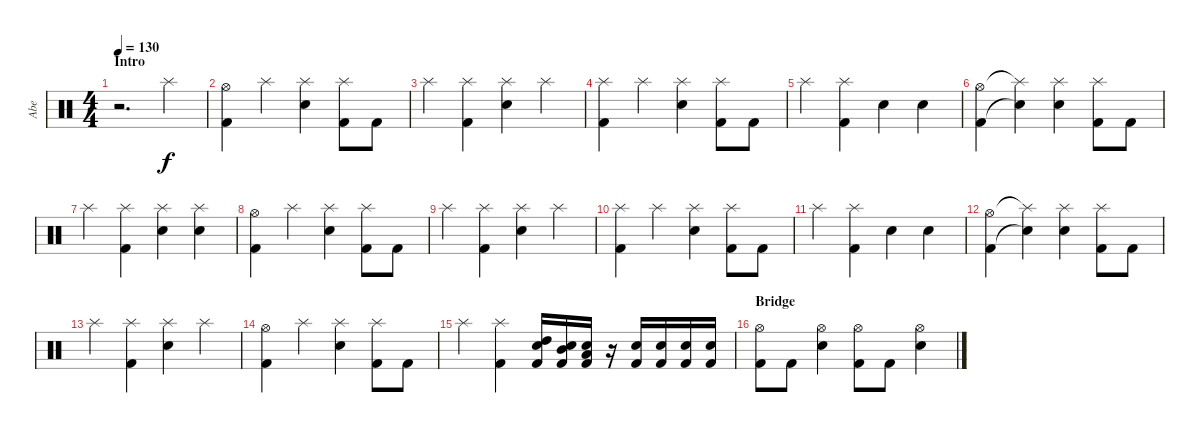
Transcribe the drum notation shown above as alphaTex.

\track ("Abe" "Abe") {instrument percussion}
\staff {score}
\articulation defaults
\ts (4 4)
\section ("" "Intro")
\tempo 130
\clef neutral
\ks c
r.2{d dy f} "Splash (hit)".4 |
("Hi-Hat (open)" "Kick (hit) 2").4 "Splash (hit)".4 ("Splash (hit)" "Snare (hit) 2").4 ("Splash (hit)" "Kick (hit) 2").8 "Kick (hit) 2".8 |
"Splash (hit)".4 ("Splash (hit)" "Kick (hit) 2").4 ("Splash (hit)" "Snare (hit) 2").4 "Splash (hit)".4 |
("Splash (hit)" "Kick (hit) 2").4 "Splash (hit)".4 ("Splash (hit)" "Snare (hit) 2").4 ("Splash (hit)" "Kick (hit) 2").8 "Kick (hit) 2".8 |
"Splash (hit)".4 ("Splash (hit)" "Kick (hit) 2").4 "Snare (hit) 2".4 "Snare (hit) 2".4 |
("Hi-Hat (open)" "Kick (hit) 2").4 ("Splash (hit)"{t} "Snare (hit)"{t}).4 ("Splash (hit)" "Snare (hit) 2").4 ("Splash (hit)" "Kick (hit) 2").8 "Kick (hit) 2".8 |
"Splash (hit)".4 ("Splash (hit)" "Kick (hit) 2").4 ("Splash (hit)" "Snare (hit) 2").4 ("Splash (hit)" "Snare (hit) 2").4 |
("Hi-Hat (open)" "Kick (hit) 2").4 "Splash (hit)".4 ("Splash (hit)" "Snare (hit) 2").4 ("Splash (hit)" "Kick (hit) 2").8 "Kick (hit) 2".8 |
"Splash (hit)".4 ("Splash (hit)" "Kick (hit) 2").4 ("Splash (hit)" "Snare (hit) 2").4 "Splash (hit)".4 |
("Splash (hit)" "Kick (hit) 2").4 "Splash (hit)".4 ("Splash (hit)" "Snare (hit) 2").4 ("Splash (hit)" "Kick (hit) 2").8 "Kick (hit) 2".8 |
"Splash (hit)".4 ("Splash (hit)" "Kick (hit) 2").4 "Snare (hit) 2".4 "Snare (hit) 2".4 |
("Hi-Hat (open)" "Kick (hit) 2").4 ("Splash (hit)"{t} "Snare (hit)"{t}).4 ("Splash (hit)" "Snare (hit) 2").4 ("Splash (hit)" "Kick (hit) 2").8 "Kick (hit) 2".8 |
"Splash (hit)".4 ("Splash (hit)" "Kick (hit) 2").4 ("Splash (hit)" "Snare (hit) 2").4 "Splash (hit)".4 |
("Hi-Hat (open)" "Kick (hit) 2").4 "Splash (hit)".4 ("Splash (hit)" "Snare (hit) 2").4 ("Splash (hit)" "Kick (hit) 2").8 "Kick (hit) 2".8 |
"Splash (hit)".4 ("Splash (hit)" "Kick (hit) 2").4 ("Kick (hit) 2" "Snare (hit) 2" "High Tom (hit)").16 ("Kick (hit) 2" "Snare (hit) 2" "Mid Tom (hit)").16 ("Kick (hit) 2" "Snare (hit) 2" "Low Tom (hit)").16 r.16 ("Kick (hit) 2" "Snare (hit) 2").16 ("Kick (hit) 2" "Snare (hit) 2").16 ("Kick (hit) 2" "Snare (hit) 2").16 ("Kick (hit) 2" "Snare (hit) 2").16 |
\section ("" "Bridge")
("Hi-Hat (open)" "Kick (hit) 2").8 "Kick (hit) 2".8 ("Hi-Hat (open)" "Snare (hit) 2").4 ("Hi-Hat (open)" "Kick (hit) 2").8 "Kick (hit) 2".8 ("Hi-Hat (open)" "Snare (hit) 2").4
